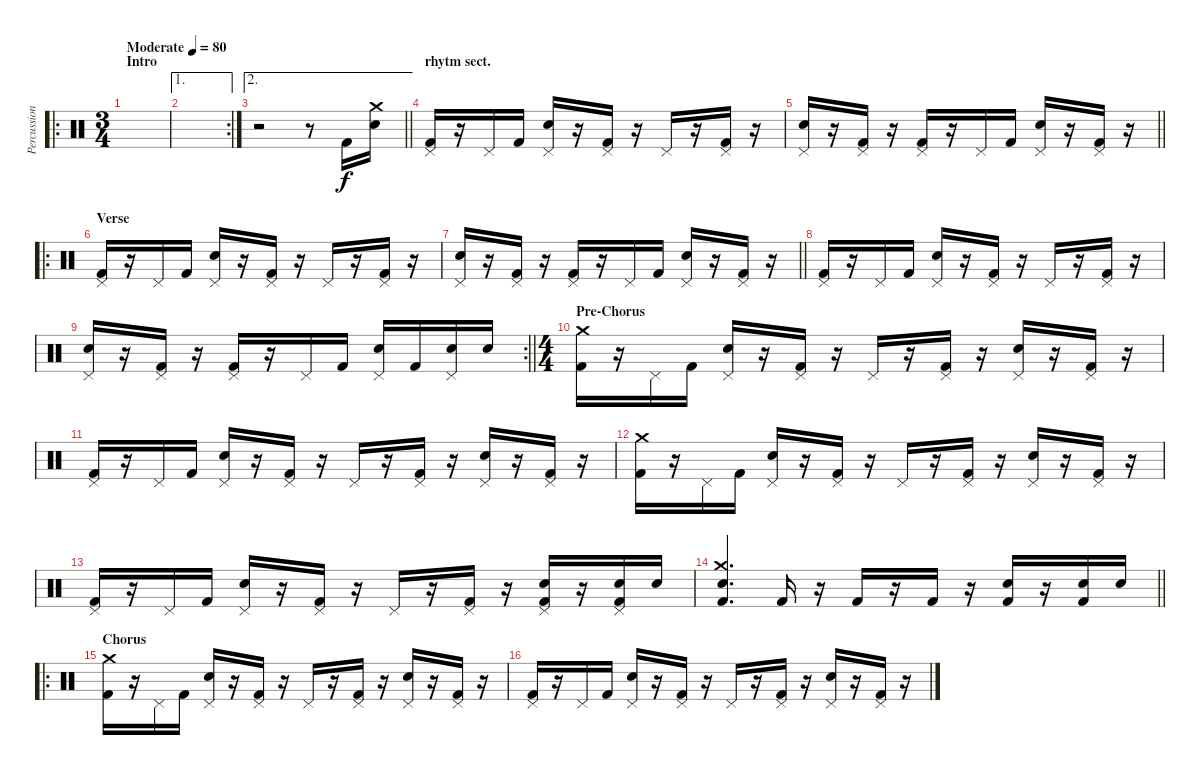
\track ("Percussion (N. Sanderson)" "Percussion") {instrument percussion}
\staff {score}
\articulation defaults
\ro
\ts (3 4)
\section ("" "Intro")
\tempo (80 "Moderate")
\clef neutral
\ks c
|
\ae 1
\rc 2
|
\ae 2
\barLineRight lightlight
r.2 r.8 "Kick (hit) 2".16 ("Crash medium (hit)" "Electric Snare (hit)").16 |
\section ("" "rhytm sect.")
("Pedal Hi-Hat (hit)" "Kick (hit) 2").16 r.16 "Pedal Hi-Hat (hit)".16 "Kick (hit) 2".16 ("Pedal Hi-Hat (hit)" "Electric Snare (hit)").16 r.16 ("Pedal Hi-Hat (hit)" "Kick (hit) 2").16 r.16 "Pedal Hi-Hat (hit)".16 r.16 ("Pedal Hi-Hat (hit)" "Kick (hit) 2").16 r.16 |
\barLineRight lightlight
("Pedal Hi-Hat (hit)" "Electric Snare (hit)").16 r.16 ("Pedal Hi-Hat (hit)" "Kick (hit) 2").16 r.16 ("Pedal Hi-Hat (hit)" "Kick (hit) 2").16 r.16 "Pedal Hi-Hat (hit)".16 "Kick (hit) 2".16 ("Pedal Hi-Hat (hit)" "Electric Snare (hit)").16 r.16 ("Pedal Hi-Hat (hit)" "Kick (hit) 2").16 r.16 |
\ro
\section ("" "Verse")
("Pedal Hi-Hat (hit)" "Kick (hit) 2").16 r.16 "Pedal Hi-Hat (hit)".16 "Kick (hit) 2".16 ("Pedal Hi-Hat (hit)" "Electric Snare (hit)").16 r.16 ("Pedal Hi-Hat (hit)" "Kick (hit) 2").16 r.16 "Pedal Hi-Hat (hit)".16 r.16 ("Pedal Hi-Hat (hit)" "Kick (hit) 2").16 r.16 |
\barLineRight lightlight
("Pedal Hi-Hat (hit)" "Electric Snare (hit)").16 r.16 ("Pedal Hi-Hat (hit)" "Kick (hit) 2").16 r.16 ("Pedal Hi-Hat (hit)" "Kick (hit) 2").16 r.16 "Pedal Hi-Hat (hit)".16 "Kick (hit) 2".16 ("Pedal Hi-Hat (hit)" "Electric Snare (hit)").16 r.16 ("Pedal Hi-Hat (hit)" "Kick (hit) 2").16 r.16 |
("Pedal Hi-Hat (hit)" "Kick (hit) 2").16 r.16 "Pedal Hi-Hat (hit)".16 "Kick (hit) 2".16 ("Pedal Hi-Hat (hit)" "Electric Snare (hit)").16 r.16 ("Pedal Hi-Hat (hit)" "Kick (hit) 2").16 r.16 "Pedal Hi-Hat (hit)".16 r.16 ("Pedal Hi-Hat (hit)" "Kick (hit) 2").16 r.16 |
\rc 2
\barLineRight lightlight
("Pedal Hi-Hat (hit)" "Electric Snare (hit)").16 r.16 ("Pedal Hi-Hat (hit)" "Kick (hit) 2").16 r.16 ("Pedal Hi-Hat (hit)" "Kick (hit) 2").16 r.16 "Pedal Hi-Hat (hit)".16 "Kick (hit) 2".16 ("Pedal Hi-Hat (hit)" "Electric Snare (hit)").16 "Kick (hit) 2".16 ("Pedal Hi-Hat (hit)" "Electric Snare (hit)").16 "Electric Snare (hit)".16 |
\ts (4 4)
\section ("" "Pre-Chorus")
("Crash medium (hit)" "Kick (hit) 2").16 r.16 "Pedal Hi-Hat (hit)".16 "Kick (hit) 2".16 ("Pedal Hi-Hat (hit)" "Electric Snare (hit)").16 r.16 ("Pedal Hi-Hat (hit)" "Kick (hit) 2").16 r.16 "Pedal Hi-Hat (hit)".16 r.16 ("Pedal Hi-Hat (hit)" "Kick (hit) 2").16 r.16 ("Pedal Hi-Hat (hit)" "Electric Snare (hit)").16 r.16 ("Pedal Hi-Hat (hit)" "Kick (hit) 2").16 r.16 |
("Pedal Hi-Hat (hit)" "Kick (hit) 2").16 r.16 "Pedal Hi-Hat (hit)".16 "Kick (hit) 2".16 ("Pedal Hi-Hat (hit)" "Electric Snare (hit)").16 r.16 ("Pedal Hi-Hat (hit)" "Kick (hit) 2").16 r.16 "Pedal Hi-Hat (hit)".16 r.16 ("Pedal Hi-Hat (hit)" "Kick (hit) 2").16 r.16 ("Pedal Hi-Hat (hit)" "Electric Snare (hit)").16 r.16 ("Pedal Hi-Hat (hit)" "Kick (hit) 2").16 r.16 |
("Crash medium (hit)" "Kick (hit) 2").16 r.16 "Pedal Hi-Hat (hit)".16 "Kick (hit) 2".16 ("Pedal Hi-Hat (hit)" "Electric Snare (hit)").16 r.16 ("Pedal Hi-Hat (hit)" "Kick (hit) 2").16 r.16 "Pedal Hi-Hat (hit)".16 r.16 ("Pedal Hi-Hat (hit)" "Kick (hit) 2").16 r.16 ("Pedal Hi-Hat (hit)" "Electric Snare (hit)").16 r.16 ("Pedal Hi-Hat (hit)" "Kick (hit) 2").16 r.16 |
("Pedal Hi-Hat (hit)" "Kick (hit) 2").16 r.16 "Pedal Hi-Hat (hit)".16 "Kick (hit) 2".16 ("Pedal Hi-Hat (hit)" "Electric Snare (hit)").16 r.16 ("Pedal Hi-Hat (hit)" "Kick (hit) 2").16 r.16 "Pedal Hi-Hat (hit)".16 r.16 ("Pedal Hi-Hat (hit)" "Kick (hit) 2").16 r.16 ("Pedal Hi-Hat (hit)" "Electric Snare (hit)" "Kick (hit) 2").16 r.16 ("Pedal Hi-Hat (hit)" "Electric Snare (hit)" "Kick (hit) 2").16 "Electric Snare (hit)".16 |
\barLineRight lightlight
("Crash medium (hit)" "Electric Snare (hit)" "Kick (hit) 2").4{d} "Kick (hit) 2".16 r.16 "Kick (hit) 2".16 r.16 "Kick (hit) 2".16 r.16 ("Electric Snare (hit)" "Kick (hit) 2").16 r.16 ("Electric Snare (hit)" "Kick (hit) 2").16 "Electric Snare (hit)".16 |
\ro
\section ("" "Chorus")
("Crash medium (hit)" "Kick (hit) 2").16 r.16 "Pedal Hi-Hat (hit)".16 "Kick (hit) 2".16 ("Pedal Hi-Hat (hit)" "Electric Snare (hit)").16 r.16 ("Pedal Hi-Hat (hit)" "Kick (hit) 2").16 r.16 "Pedal Hi-Hat (hit)".16 r.16 ("Pedal Hi-Hat (hit)" "Kick (hit) 2").16 r.16 ("Pedal Hi-Hat (hit)" "Electric Snare (hit)").16 r.16 ("Pedal Hi-Hat (hit)" "Kick (hit) 2").16 r.16 |
("Pedal Hi-Hat (hit)" "Kick (hit) 2").16 r.16 "Pedal Hi-Hat (hit)".16 "Kick (hit) 2".16 ("Pedal Hi-Hat (hit)" "Electric Snare (hit)").16 r.16 ("Pedal Hi-Hat (hit)" "Kick (hit) 2").16 r.16 "Pedal Hi-Hat (hit)".16 r.16 ("Pedal Hi-Hat (hit)" "Kick (hit) 2").16 r.16 ("Pedal Hi-Hat (hit)" "Electric Snare (hit)").16 r.16 ("Pedal Hi-Hat (hit)" "Kick (hit) 2").16 r.16
